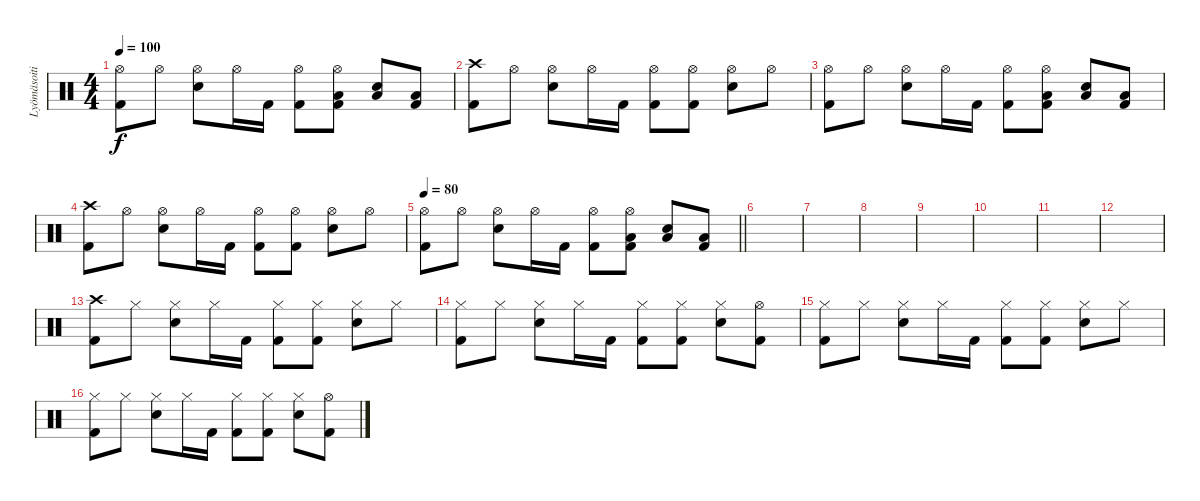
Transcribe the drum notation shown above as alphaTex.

\track ("Lyömäsoitin" "Lyömäsoiti") {instrument percussion}
\staff {score}
\articulation defaults
\ts (4 4)
\tempo 100
\clef neutral
\ks c
("Hi-Hat (open)" "Kick (hit) 2").8{dy f} "Hi-Hat (open)".8 ("Hi-Hat (open)" "Snare (hit) 2").8 "Hi-Hat (open)".16 "Kick (hit) 2".16 ("Hi-Hat (open)" "Kick (hit) 2").8 ("Hi-Hat (open)" "Low Floor Tom (hit)" "Kick (hit) 2").8 ("Snare (hit) 2" "Low Floor Tom (hit)").8 ("Low Floor Tom (hit)" "Kick (hit) 2").8 |
("Crash high (hit)" "Kick (hit) 2").8 "Hi-Hat (open)".8 ("Hi-Hat (open)" "Snare (hit) 2").8 "Hi-Hat (open)".16 "Kick (hit) 2".16 ("Hi-Hat (open)" "Kick (hit) 2").8 ("Hi-Hat (open)" "Kick (hit) 2").8 ("Hi-Hat (open)" "Snare (hit) 2").8 "Hi-Hat (open)".8 |
("Hi-Hat (open)" "Kick (hit) 2").8 "Hi-Hat (open)".8 ("Hi-Hat (open)" "Snare (hit) 2").8 "Hi-Hat (open)".16 "Kick (hit) 2".16 ("Hi-Hat (open)" "Kick (hit) 2").8 ("Hi-Hat (open)" "Low Floor Tom (hit)" "Kick (hit) 2").8 ("Snare (hit) 2" "Low Floor Tom (hit)").8 ("Low Floor Tom (hit)" "Kick (hit) 2").8 |
("Crash high (hit)" "Kick (hit) 2").8 "Hi-Hat (open)".8 ("Hi-Hat (open)" "Snare (hit) 2").8 "Hi-Hat (open)".16 "Kick (hit) 2".16 ("Hi-Hat (open)" "Kick (hit) 2").8 ("Hi-Hat (open)" "Kick (hit) 2").8 ("Hi-Hat (open)" "Snare (hit) 2").8 "Hi-Hat (open)".8 |
\tempo 80
\barLineRight lightlight
("Hi-Hat (open)" "Kick (hit) 2").8 "Hi-Hat (open)".8 ("Hi-Hat (open)" "Snare (hit) 2").8 "Hi-Hat (open)".16 "Kick (hit) 2".16 ("Hi-Hat (open)" "Kick (hit) 2").8 ("Hi-Hat (open)" "Low Floor Tom (hit)" "Kick (hit) 2").8 ("Snare (hit) 2" "Low Floor Tom (hit)").8 ("Low Floor Tom (hit)" "Kick (hit) 2").8 |
|
|
|
|
|
|
|
("Crash high (hit)" "Kick (hit) 2").8 "Hi-Hat (closed)".8 ("Hi-Hat (closed)" "Snare (hit) 2").8 "Hi-Hat (closed)".16 "Kick (hit) 2".16 ("Hi-Hat (closed)" "Kick (hit) 2").8 ("Hi-Hat (closed)" "Kick (hit) 2").8 ("Hi-Hat (closed)" "Snare (hit) 2").8 "Hi-Hat (closed)".8 |
("Hi-Hat (closed)" "Kick (hit) 2").8 "Hi-Hat (closed)".8 ("Hi-Hat (closed)" "Snare (hit) 2").8 "Hi-Hat (closed)".16 "Kick (hit) 2".16 ("Hi-Hat (closed)" "Kick (hit) 2").8 ("Hi-Hat (closed)" "Kick (hit) 2").8 ("Hi-Hat (closed)" "Snare (hit) 2").8 ("Hi-Hat (open)" "Kick (hit) 2").8 |
("Hi-Hat (closed)" "Kick (hit) 2").8 "Hi-Hat (closed)".8 ("Hi-Hat (closed)" "Snare (hit) 2").8 "Hi-Hat (closed)".16 "Kick (hit) 2".16 ("Hi-Hat (closed)" "Kick (hit) 2").8 ("Hi-Hat (closed)" "Kick (hit) 2").8 ("Hi-Hat (closed)" "Snare (hit) 2").8 "Hi-Hat (closed)".8 |
("Hi-Hat (closed)" "Kick (hit) 2").8 "Hi-Hat (closed)".8 ("Hi-Hat (closed)" "Snare (hit) 2").8 "Hi-Hat (closed)".16 "Kick (hit) 2".16 ("Hi-Hat (closed)" "Kick (hit) 2").8 ("Hi-Hat (closed)" "Kick (hit) 2").8 ("Hi-Hat (closed)" "Snare (hit) 2").8 ("Hi-Hat (open)" "Kick (hit) 2").8
